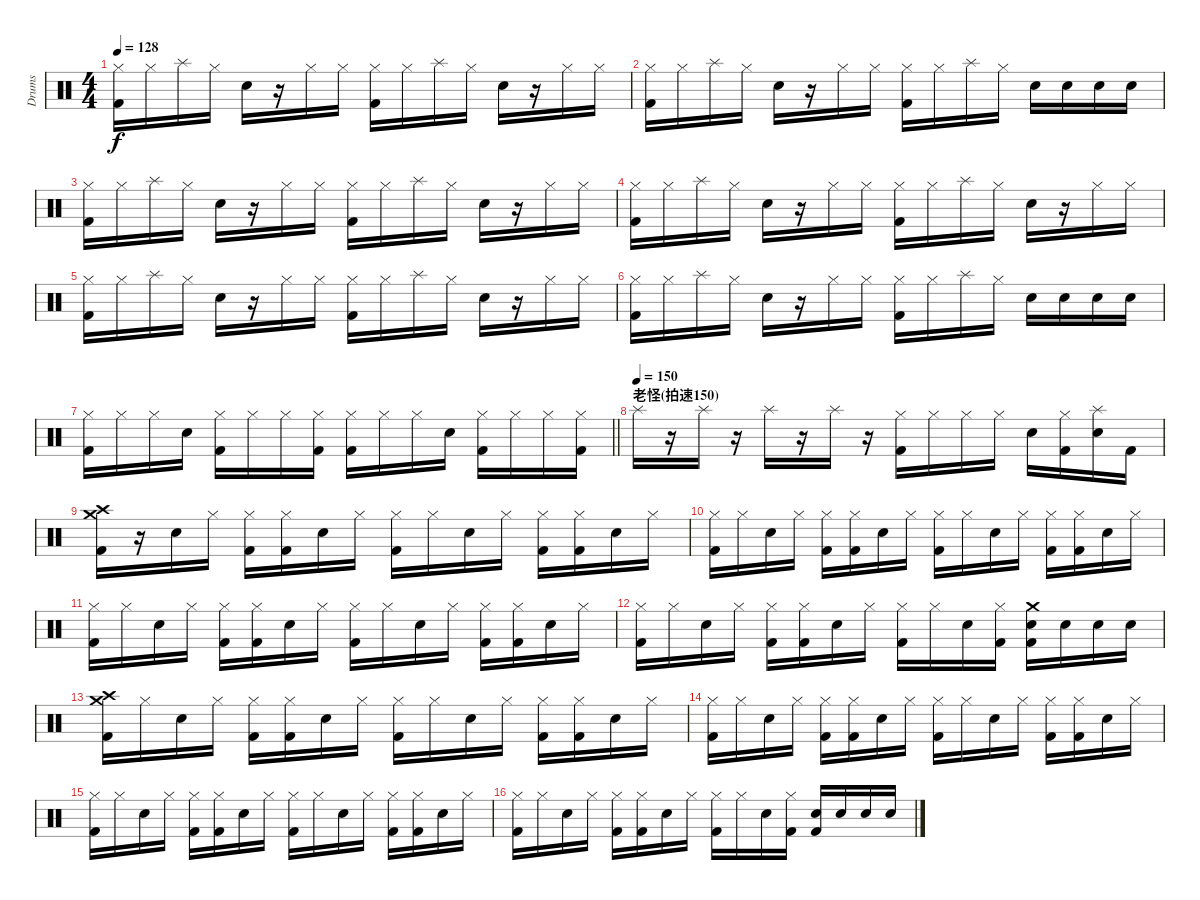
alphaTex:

\track ("Drums" "Drums") {instrument percussion}
\staff {score}
\articulation defaults
\ts (4 4)
\tempo 128
\clef neutral
\ks c
("Hi-Hat (closed)" "Kick (hit) 2").16{dy f} "Hi-Hat (closed)".16 "Splash (hit)".16 "Hi-Hat (closed)".16 "Snare (hit) 2".16 r.16 "Hi-Hat (closed)".16 "Hi-Hat (closed)".16 ("Hi-Hat (closed)" "Kick (hit) 2").16 "Hi-Hat (closed)".16 "Splash (hit)".16 "Hi-Hat (closed)".16 "Snare (hit) 2".16 r.16 "Hi-Hat (closed)".16 "Hi-Hat (closed)".16 |
("Hi-Hat (closed)" "Kick (hit) 2").16 "Hi-Hat (closed)".16 "Splash (hit)".16 "Hi-Hat (closed)".16 "Snare (hit) 2".16 r.16 "Hi-Hat (closed)".16 "Hi-Hat (closed)".16 ("Hi-Hat (closed)" "Kick (hit) 2").16 "Hi-Hat (closed)".16 "Splash (hit)".16 "Hi-Hat (closed)".16 "Snare (hit) 2".16 "Snare (hit) 2".16 "Snare (hit) 2".16 "Snare (hit) 2".16 |
("Hi-Hat (closed)" "Kick (hit) 2").16 "Hi-Hat (closed)".16 "Splash (hit)".16 "Hi-Hat (closed)".16 "Snare (hit) 2".16 r.16 "Hi-Hat (closed)".16 "Hi-Hat (closed)".16 ("Hi-Hat (closed)" "Kick (hit) 2").16 "Hi-Hat (closed)".16 "Splash (hit)".16 "Hi-Hat (closed)".16 "Snare (hit) 2".16 r.16 "Hi-Hat (closed)".16 "Hi-Hat (closed)".16 |
("Hi-Hat (closed)" "Kick (hit) 2").16 "Hi-Hat (closed)".16 "Splash (hit)".16 "Hi-Hat (closed)".16 "Snare (hit) 2".16 r.16 "Hi-Hat (closed)".16 "Hi-Hat (closed)".16 ("Hi-Hat (closed)" "Kick (hit) 2").16 "Hi-Hat (closed)".16 "Splash (hit)".16 "Hi-Hat (closed)".16 "Snare (hit) 2".16 r.16 "Hi-Hat (closed)".16 "Hi-Hat (closed)".16 |
("Hi-Hat (closed)" "Kick (hit) 2").16 "Hi-Hat (closed)".16 "Splash (hit)".16 "Hi-Hat (closed)".16 "Snare (hit) 2".16 r.16 "Hi-Hat (closed)".16 "Hi-Hat (closed)".16 ("Hi-Hat (closed)" "Kick (hit) 2").16 "Hi-Hat (closed)".16 "Splash (hit)".16 "Hi-Hat (closed)".16 "Snare (hit) 2".16 r.16 "Hi-Hat (closed)".16 "Hi-Hat (closed)".16 |
("Hi-Hat (closed)" "Kick (hit) 2").16 "Hi-Hat (closed)".16 "Splash (hit)".16 "Hi-Hat (closed)".16 "Snare (hit) 2".16 r.16 "Hi-Hat (closed)".16 "Hi-Hat (closed)".16 ("Hi-Hat (closed)" "Kick (hit) 2").16 "Hi-Hat (closed)".16 "Splash (hit)".16 "Hi-Hat (closed)".16 "Snare (hit) 2".16 "Snare (hit) 2".16 "Snare (hit) 2".16 "Snare (hit) 2".16 |
\barLineRight lightlight
("Hi-Hat (closed)" "Kick (hit) 2").16{volume 0} "Hi-Hat (closed)".16 "Hi-Hat (closed)".16 "Snare (hit) 2".16 ("Hi-Hat (closed)" "Kick (hit) 2").16 "Hi-Hat (closed)".16 "Hi-Hat (closed)".16 ("Hi-Hat (closed)" "Kick (hit) 2").16 ("Hi-Hat (closed)" "Kick (hit) 2").16 "Hi-Hat (closed)".16 "Hi-Hat (closed)".16 "Snare (hit) 2".16 ("Hi-Hat (closed)" "Kick (hit) 2").16 "Hi-Hat (closed)".16 "Hi-Hat (closed)".16 ("Hi-Hat (closed)" "Kick (hit) 2").16 |
\section ("" "老怪(拍速150)")
\tempo (150)
"Splash (hit)".16{volume 13} r.16 "Splash (hit)".16 r.16 "Splash (hit)".16 r.16 "Splash (hit)".16 r.16 ("Hi-Hat (closed)" "Kick (hit) 2").16 "Hi-Hat (closed)".16 "Hi-Hat (closed)".16 "Hi-Hat (closed)".16 "Snare (hit) 2".16 ("Hi-Hat (closed)" "Kick (hit) 2").16 ("Splash (hit)" "Snare (hit) 2").16 "Kick (hit) 2".16 |
("Crash medium (hit)" "Crash high (hit)" "Kick (hit) 2").16 r.16 "Snare (hit) 2".16 "Hi-Hat (closed)".16 ("Hi-Hat (closed)" "Kick (hit) 2").16 ("Hi-Hat (closed)" "Kick (hit) 2").16 "Snare (hit) 2".16 "Hi-Hat (closed)".16 ("Hi-Hat (closed)" "Kick (hit) 2").16 "Hi-Hat (closed)".16 "Snare (hit) 2".16 "Hi-Hat (closed)".16 ("Hi-Hat (closed)" "Kick (hit) 2").16 ("Hi-Hat (closed)" "Kick (hit) 2").16 "Snare (hit) 2".16 "Hi-Hat (closed)".16 |
("Hi-Hat (closed)" "Kick (hit) 2").16 "Hi-Hat (closed)".16 "Snare (hit) 2".16 "Hi-Hat (closed)".16 ("Hi-Hat (closed)" "Kick (hit) 2").16 ("Hi-Hat (closed)" "Kick (hit) 2").16 "Snare (hit) 2".16 "Hi-Hat (closed)".16 ("Hi-Hat (closed)" "Kick (hit) 2").16 "Hi-Hat (closed)".16 "Snare (hit) 2".16 "Hi-Hat (closed)".16 ("Hi-Hat (closed)" "Kick (hit) 2").16 ("Hi-Hat (closed)" "Kick (hit) 2").16 "Snare (hit) 2".16 "Hi-Hat (closed)".16 |
("Hi-Hat (closed)" "Kick (hit) 2").16 "Hi-Hat (closed)".16 "Snare (hit) 2".16 "Hi-Hat (closed)".16 ("Hi-Hat (closed)" "Kick (hit) 2").16 ("Hi-Hat (closed)" "Kick (hit) 2").16 "Snare (hit) 2".16 "Hi-Hat (closed)".16 ("Hi-Hat (closed)" "Kick (hit) 2").16 "Hi-Hat (closed)".16 "Snare (hit) 2".16 "Hi-Hat (closed)".16 ("Hi-Hat (closed)" "Kick (hit) 2").16 ("Hi-Hat (closed)" "Kick (hit) 2").16 "Snare (hit) 2".16 "Hi-Hat (closed)".16 |
("Hi-Hat (closed)" "Kick (hit) 2").16 "Hi-Hat (closed)".16 "Snare (hit) 2".16 "Hi-Hat (closed)".16 ("Hi-Hat (closed)" "Kick (hit) 2").16 ("Hi-Hat (closed)" "Kick (hit) 2").16 "Snare (hit) 2".16 "Hi-Hat (closed)".16 ("Hi-Hat (closed)" "Kick (hit) 2").16 "Hi-Hat (closed)".16 "Snare (hit) 2".16 ("Hi-Hat (closed)" "Kick (hit) 2").16 ("Crash medium (hit)" "Snare (hit) 2" "Kick (hit) 2").16 "Snare (hit) 2".16 "Snare (hit) 2".16 "Snare (hit) 2".16 |
("Crash medium (hit)" "Crash high (hit)" "Kick (hit) 2").16 "Hi-Hat (closed)".16 "Snare (hit) 2".16 "Hi-Hat (closed)".16 ("Hi-Hat (closed)" "Kick (hit) 2").16 ("Hi-Hat (closed)" "Kick (hit) 2").16 "Snare (hit) 2".16 "Hi-Hat (closed)".16 ("Hi-Hat (closed)" "Kick (hit) 2").16 "Hi-Hat (closed)".16 "Snare (hit) 2".16 "Hi-Hat (closed)".16 ("Hi-Hat (closed)" "Kick (hit) 2").16 ("Hi-Hat (closed)" "Kick (hit) 2").16 "Snare (hit) 2".16 "Hi-Hat (closed)".16 |
("Hi-Hat (closed)" "Kick (hit) 2").16 "Hi-Hat (closed)".16 "Snare (hit) 2".16 "Hi-Hat (closed)".16 ("Hi-Hat (closed)" "Kick (hit) 2").16 ("Hi-Hat (closed)" "Kick (hit) 2").16 "Snare (hit) 2".16 "Hi-Hat (closed)".16 ("Hi-Hat (closed)" "Kick (hit) 2").16 "Hi-Hat (closed)".16 "Snare (hit) 2".16 "Hi-Hat (closed)".16 ("Hi-Hat (closed)" "Kick (hit) 2").16 ("Hi-Hat (closed)" "Kick (hit) 2").16 "Snare (hit) 2".16 "Hi-Hat (closed)".16 |
("Hi-Hat (closed)" "Kick (hit) 2").16 "Hi-Hat (closed)".16 "Snare (hit) 2".16 "Hi-Hat (closed)".16 ("Hi-Hat (closed)" "Kick (hit) 2").16 ("Hi-Hat (closed)" "Kick (hit) 2").16 "Snare (hit) 2".16 "Hi-Hat (closed)".16 ("Hi-Hat (closed)" "Kick (hit) 2").16 "Hi-Hat (closed)".16 "Snare (hit) 2".16 "Hi-Hat (closed)".16 ("Hi-Hat (closed)" "Kick (hit) 2").16 ("Hi-Hat (closed)" "Kick (hit) 2").16 "Snare (hit) 2".16 "Hi-Hat (closed)".16 |
("Hi-Hat (closed)" "Kick (hit) 2").16 "Hi-Hat (closed)".16 "Snare (hit) 2".16 "Hi-Hat (closed)".16 ("Hi-Hat (closed)" "Kick (hit) 2").16 ("Hi-Hat (closed)" "Kick (hit) 2").16 "Snare (hit) 2".16 "Hi-Hat (closed)".16 ("Hi-Hat (closed)" "Kick (hit) 2").16 "Hi-Hat (closed)".16 "Snare (hit) 2".16 ("Hi-Hat (closed)" "Kick (hit) 2").16 ("Snare (hit) 2" "Kick (hit) 2").16 "Snare (hit) 2".16 "Snare (hit) 2".16 "Snare (hit) 2".16
